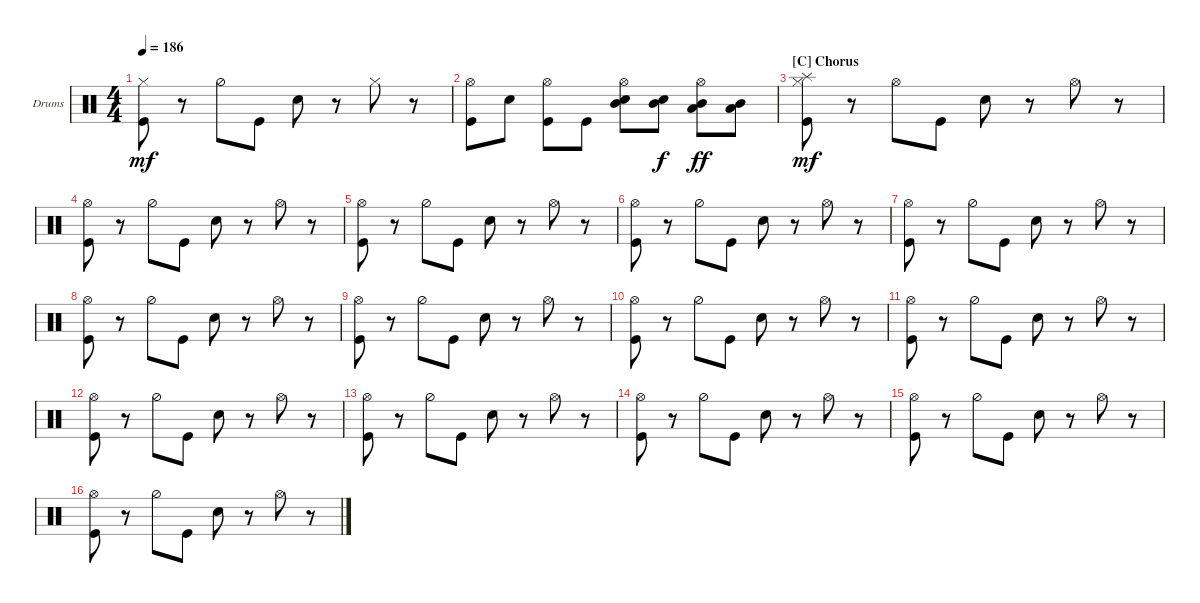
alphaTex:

\defaultSystemsLayout 4
\bracketExtendMode groupsimilarinstruments
\firstSystemTrackNameOrientation horizontal
\otherSystemsTrackNameOrientation horizontal
\track ("Drumkit" "Drums") {instrument percussion}
\staff {score}
\articulation defaults
\ts (4 4)
\tempo 186
\clef neutral
\scale
0.333333
\ks c
("Hi-Hat (closed)" "Kick (hit)").8{dy mf} r.8 "Hi-Hat (half)".8 "Kick (hit)".8 "Snare (hit) 2".8 r.8 "Hi-Hat (closed)".8 r.8 |
\scale
0.333333 ("Hi-Hat (open)" "Kick (hit)").8 "Snare (hit) 2".8 ("Kick (hit)" "Hi-Hat (open)").8 "Kick (hit)".8 ("Snare (hit) 2" "Hi-Hat (open)" "Mid Tom (hit)").8 ("Mid Tom (hit)" "Snare (hit) 2").8{dy f} ("Hi-Hat (open)" "Low Tom (hit)" "Mid Tom (hit)").8{dy ff} ("Low Tom (hit)" "Mid Tom (hit)").8 |
\section ("C" "Chorus")
\scale
0.333333 ("Hi-Hat (closed)" "Kick (hit)" "Splash (hit)").8{dy mf} r.8 "Hi-Hat (open)".8 "Kick (hit)".8 "Snare (hit) 2".8 r.8 "Hi-Hat (open)".8 r.8 |
\scale
0.333333 ("Hi-Hat (open)" "Kick (hit)").8 r.8 "Hi-Hat (half)".8 "Kick (hit)".8 "Snare (hit) 2".8 r.8 "Hi-Hat (open)".8 r.8 |
\scale
0.333333 ("Hi-Hat (open)" "Kick (hit)").8 r.8 "Hi-Hat (half)".8 "Kick (hit)".8 "Snare (hit) 2".8 r.8 "Hi-Hat (open)".8 r.8 |
\scale
0.333333 ("Hi-Hat (open)" "Kick (hit)").8 r.8 "Hi-Hat (half)".8 "Kick (hit)".8 "Snare (hit) 2".8 r.8 "Hi-Hat (open)".8 r.8 |
\scale
0.333333 ("Hi-Hat (open)" "Kick (hit)").8 r.8 "Hi-Hat (half)".8 "Kick (hit)".8 "Snare (hit) 2".8 r.8 "Hi-Hat (open)".8 r.8 |
\scale
0.333333 ("Hi-Hat (open)" "Kick (hit)").8 r.8 "Hi-Hat (half)".8 "Kick (hit)".8 "Snare (hit) 2".8 r.8 "Hi-Hat (open)".8 r.8 |
\scale
0.333333 ("Hi-Hat (open)" "Kick (hit)").8 r.8 "Hi-Hat (half)".8 "Kick (hit)".8 "Snare (hit) 2".8 r.8 "Hi-Hat (open)".8 r.8 |
\scale
0.333333 ("Hi-Hat (open)" "Kick (hit)").8 r.8 "Hi-Hat (half)".8 "Kick (hit)".8 "Snare (hit) 2".8 r.8 "Hi-Hat (open)".8 r.8 |
\scale
0.333333 ("Hi-Hat (open)" "Kick (hit)").8 r.8 "Hi-Hat (half)".8 "Kick (hit)".8 "Snare (hit) 2".8 r.8 "Hi-Hat (open)".8 r.8 |
\scale
0.333333 ("Hi-Hat (open)" "Kick (hit)").8 r.8 "Hi-Hat (half)".8 "Kick (hit)".8 "Snare (hit) 2".8 r.8 "Hi-Hat (open)".8 r.8 |
\scale
0.333333 ("Hi-Hat (open)" "Kick (hit)").8 r.8 "Hi-Hat (half)".8 "Kick (hit)".8 "Snare (hit) 2".8 r.8 "Hi-Hat (open)".8 r.8 |
\scale
0.333333 ("Hi-Hat (open)" "Kick (hit)").8 r.8 "Hi-Hat (half)".8 "Kick (hit)".8 "Snare (hit) 2".8 r.8 "Hi-Hat (open)".8 r.8 |
\scale
0.333333 ("Hi-Hat (open)" "Kick (hit)").8 r.8 "Hi-Hat (half)".8 "Kick (hit)".8 "Snare (hit) 2".8 r.8 "Hi-Hat (open)".8 r.8 |
\scale
0.333333 ("Hi-Hat (open)" "Kick (hit)").8 r.8 "Hi-Hat (half)".8 "Kick (hit)".8 "Snare (hit) 2".8 r.8 "Hi-Hat (open)".8 r.8
